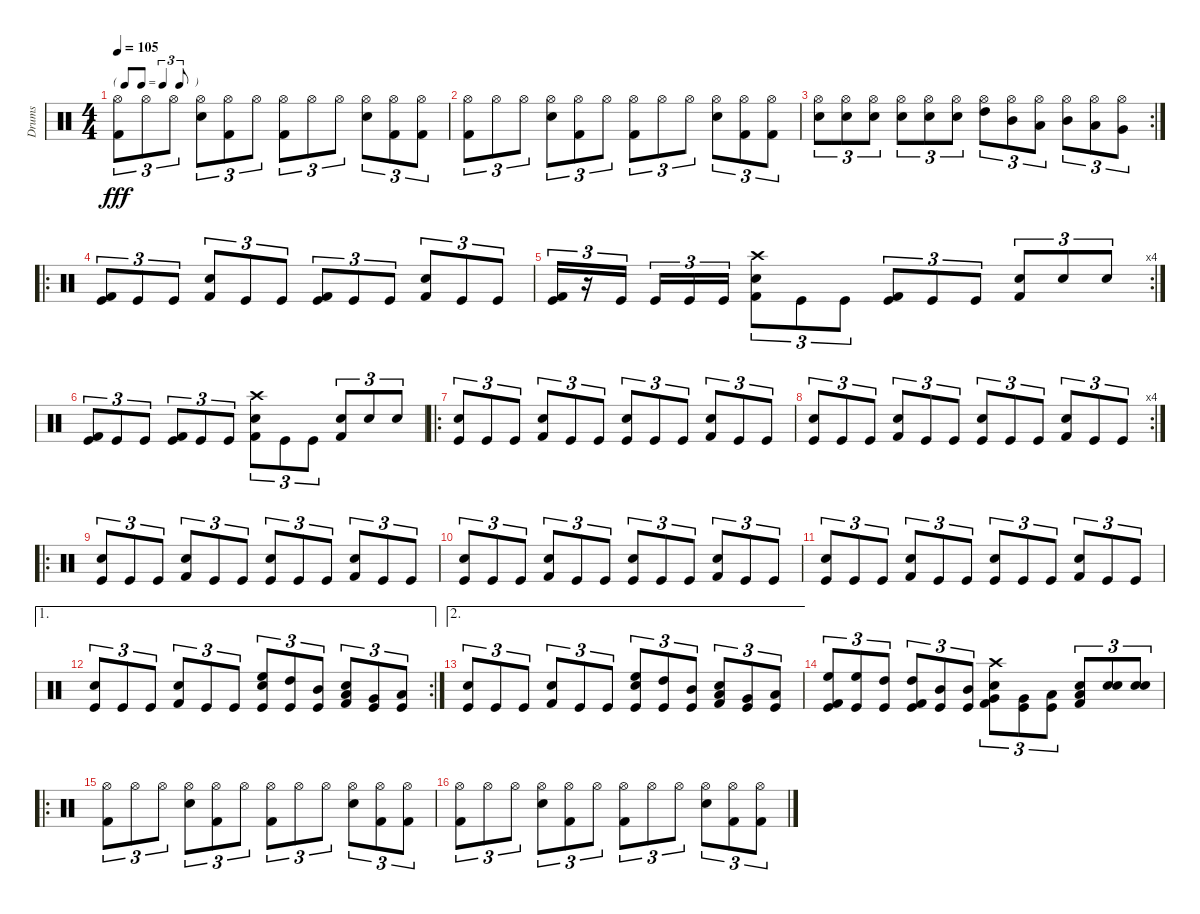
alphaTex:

\track ("Drums" "Drums") {instrument percussion}
\staff {score}
\articulation defaults
\ts (4 4)
\tf triplet8th
\tempo 105
\clef neutral
\ks c
("Hi-Hat (open)" "Kick (hit) 2").8{tu (3 2) dy fff} "Hi-Hat (open)".8{tu (3 2)} "Hi-Hat (open)".8{tu (3 2)} ("Hi-Hat (open)" "Snare (hit) 2").8{tu (3 2)} ("Hi-Hat (open)" "Kick (hit) 2").8{tu (3 2)} "Hi-Hat (open)".8{tu (3 2)} ("Hi-Hat (open)" "Kick (hit) 2").8{tu (3 2)} "Hi-Hat (open)".8{tu (3 2)} "Hi-Hat (open)".8{tu (3 2)} ("Hi-Hat (open)" "Snare (hit) 2").8{tu (3 2)} ("Hi-Hat (open)" "Kick (hit) 2").8{tu (3 2)} ("Hi-Hat (open)" "Kick (hit) 2").8{tu (3 2)} |
("Hi-Hat (open)" "Kick (hit) 2").8{tu (3 2)} "Hi-Hat (open)".8{tu (3 2)} "Hi-Hat (open)".8{tu (3 2)} ("Hi-Hat (open)" "Snare (hit) 2").8{tu (3 2)} ("Hi-Hat (open)" "Kick (hit) 2").8{tu (3 2)} "Hi-Hat (open)".8{tu (3 2)} ("Hi-Hat (open)" "Kick (hit) 2").8{tu (3 2)} "Hi-Hat (open)".8{tu (3 2)} "Hi-Hat (open)".8{tu (3 2)} ("Hi-Hat (open)" "Snare (hit) 2").8{tu (3 2)} ("Hi-Hat (open)" "Kick (hit) 2").8{tu (3 2)} ("Hi-Hat (open)" "Kick (hit) 2").8{tu (3 2)} |
\rc 2
("Hi-Hat (open)" "Snare (hit) 2").8{tu (3 2)} ("Hi-Hat (open)" "Snare (hit) 2").8{tu (3 2)} ("Hi-Hat (open)" "Snare (hit) 2").8{tu (3 2)} ("Hi-Hat (open)" "Snare (hit) 2").8{tu (3 2)} ("Hi-Hat (open)" "Snare (hit) 2").8{tu (3 2)} ("Hi-Hat (open)" "Snare (hit) 2").8{tu (3 2)} ("Hi-Hat (open)" "High Tom (hit)").8{tu (3 2)} ("Hi-Hat (open)" "Mid Tom (hit)").8{tu (3 2)} ("Hi-Hat (open)" "Low Tom (hit)").8{tu (3 2)} ("Hi-Hat (open)" "Mid Tom (hit)").8{tu (3 2)} ("Hi-Hat (open)" "Low Tom (hit)").8{tu (3 2)} ("Hi-Hat (open)" "Very Low Tom (hit)").8{tu (3 2)} |
\ro
("Kick (hit)" "Kick (hit) 2").8{tu (3 2)} "Kick (hit)".8{tu (3 2)} "Kick (hit)".8{tu (3 2)} ("Snare (hit) 2" "Kick (hit) 2").8{tu (3 2)} "Kick (hit)".8{tu (3 2)} "Kick (hit)".8{tu (3 2)} ("Kick (hit)" "Kick (hit) 2").8{tu (3 2)} "Kick (hit)".8{tu (3 2)} "Kick (hit)".8{tu (3 2)} ("Snare (hit) 2" "Kick (hit) 2").8{tu (3 2)} "Kick (hit)".8{tu (3 2)} "Kick (hit)".8{tu (3 2)} |
\rc 4
("Kick (hit)" "Kick (hit) 2").16{tu (3 2)} r.16{tu (3 2)} "Kick (hit)".16{tu (3 2)} "Kick (hit)".16{tu (3 2)} "Kick (hit)".16{tu (3 2)} "Kick (hit)".16{tu (3 2)} ("Snare (hit) 2" "Kick (hit) 2" "Crash high (hit)").8{tu (3 2)} "Kick (hit)".8{tu (3 2)} "Kick (hit)".8{tu (3 2)} ("Kick (hit)" "Kick (hit) 2").8{tu (3 2)} "Kick (hit)".8{tu (3 2)} "Kick (hit)".8{tu (3 2)} ("Snare (hit) 2" "Kick (hit) 2").8{tu (3 2)} "Snare (hit) 2".8{tu (3 2)} "Snare (hit) 2".8{tu (3 2)} |
("Kick (hit)" "Kick (hit) 2").8{tu (3 2)} "Kick (hit)".8{tu (3 2)} "Kick (hit)".8{tu (3 2)} ("Kick (hit)" "Kick (hit) 2").8{tu (3 2)} "Kick (hit)".8{tu (3 2)} "Kick (hit)".8{tu (3 2)} ("Snare (hit) 2" "Kick (hit) 2" "Crash high (hit)").8{tu (3 2)} "Kick (hit)".8{tu (3 2)} "Kick (hit)".8{tu (3 2)} ("Snare (hit) 2" "Kick (hit) 2").8{tu (3 2)} "Snare (hit) 2".8{tu (3 2)} "Snare (hit) 2".8{tu (3 2)} |
\ro
("Kick (hit)" "Snare (hit) 2").8{tu (3 2)} "Kick (hit)".8{tu (3 2)} "Kick (hit)".8{tu (3 2)} ("Snare (hit) 2" "Kick (hit) 2").8{tu (3 2)} "Kick (hit)".8{tu (3 2)} "Kick (hit)".8{tu (3 2)} ("Kick (hit)" "Snare (hit) 2").8{tu (3 2)} "Kick (hit)".8{tu (3 2)} "Kick (hit)".8{tu (3 2)} ("Snare (hit) 2" "Kick (hit) 2").8{tu (3 2)} "Kick (hit)".8{tu (3 2)} "Kick (hit)".8{tu (3 2)} |
\rc 4
("Kick (hit)" "Snare (hit) 2").8{tu (3 2)} "Kick (hit)".8{tu (3 2)} "Kick (hit)".8{tu (3 2)} ("Snare (hit) 2" "Kick (hit) 2").8{tu (3 2)} "Kick (hit)".8{tu (3 2)} "Kick (hit)".8{tu (3 2)} ("Kick (hit)" "Snare (hit) 2").8{tu (3 2)} "Kick (hit)".8{tu (3 2)} "Kick (hit)".8{tu (3 2)} ("Snare (hit) 2" "Kick (hit) 2").8{tu (3 2)} "Kick (hit)".8{tu (3 2)} "Kick (hit)".8{tu (3 2)} |
\ro
("Kick (hit)" "Snare (hit) 2").8{tu (3 2)} "Kick (hit)".8{tu (3 2)} "Kick (hit)".8{tu (3 2)} ("Snare (hit) 2" "Kick (hit) 2").8{tu (3 2)} "Kick (hit)".8{tu (3 2)} "Kick (hit)".8{tu (3 2)} ("Kick (hit)" "Snare (hit) 2").8{tu (3 2)} "Kick (hit)".8{tu (3 2)} "Kick (hit)".8{tu (3 2)} ("Snare (hit) 2" "Kick (hit) 2").8{tu (3 2)} "Kick (hit)".8{tu (3 2)} "Kick (hit)".8{tu (3 2)} |
("Kick (hit)" "Snare (hit) 2").8{tu (3 2)} "Kick (hit)".8{tu (3 2)} "Kick (hit)".8{tu (3 2)} ("Snare (hit) 2" "Kick (hit) 2").8{tu (3 2)} "Kick (hit)".8{tu (3 2)} "Kick (hit)".8{tu (3 2)} ("Kick (hit)" "Snare (hit) 2").8{tu (3 2)} "Kick (hit)".8{tu (3 2)} "Kick (hit)".8{tu (3 2)} ("Snare (hit) 2" "Kick (hit) 2").8{tu (3 2)} "Kick (hit)".8{tu (3 2)} "Kick (hit)".8{tu (3 2)} |
("Kick (hit)" "Snare (hit) 2").8{tu (3 2)} "Kick (hit)".8{tu (3 2)} "Kick (hit)".8{tu (3 2)} ("Snare (hit) 2" "Kick (hit) 2").8{tu (3 2)} "Kick (hit)".8{tu (3 2)} "Kick (hit)".8{tu (3 2)} ("Kick (hit)" "Snare (hit) 2").8{tu (3 2)} "Kick (hit)".8{tu (3 2)} "Kick (hit)".8{tu (3 2)} ("Snare (hit) 2" "Kick (hit) 2").8{tu (3 2)} "Kick (hit)".8{tu (3 2)} "Kick (hit)".8{tu (3 2)} |
\ae 1
\rc 2
("Kick (hit)" "Snare (hit) 2").8{tu (3 2)} "Kick (hit)".8{tu (3 2)} "Kick (hit)".8{tu (3 2)} ("Snare (hit) 2" "Kick (hit) 2").8{tu (3 2)} "Kick (hit)".8{tu (3 2)} "Kick (hit)".8{tu (3 2)} ("Kick (hit)" "Snare (hit) 2" "High Floor Tom (hit)").8{tu (3 2)} ("Kick (hit)" "High Tom (hit)").8{tu (3 2)} ("Kick (hit)" "Mid Tom (hit)").8{tu (3 2)} ("Snare (hit) 2" "Kick (hit) 2" "Low Tom (hit)").8{tu (3 2)} ("Kick (hit)" "Very Low Tom (hit)").8{tu (3 2)} ("Kick (hit)" "Low Floor Tom (hit)").8{tu (3 2)} |
\ae 2
("Kick (hit)" "Snare (hit) 2").8{tu (3 2)} "Kick (hit)".8{tu (3 2)} "Kick (hit)".8{tu (3 2)} ("Snare (hit) 2" "Kick (hit) 2").8{tu (3 2)} "Kick (hit)".8{tu (3 2)} "Kick (hit)".8{tu (3 2)} ("Kick (hit)" "Snare (hit) 2" "High Floor Tom (hit)").8{tu (3 2)} ("Kick (hit)" "High Tom (hit)").8{tu (3 2)} ("Kick (hit)" "Mid Tom (hit)").8{tu (3 2)} ("Snare (hit) 2" "Kick (hit) 2" "Low Tom (hit)").8{tu (3 2)} ("Kick (hit)" "Very Low Tom (hit)").8{tu (3 2)} ("Kick (hit)" "Low Floor Tom (hit)").8{tu (3 2)} |
("Kick (hit)" "Kick (hit) 2" "High Floor Tom (hit)").8{tu (3 2)} ("Kick (hit)" "High Floor Tom (hit)").8{tu (3 2)} ("Kick (hit)" "High Tom (hit)").8{tu (3 2)} ("Kick (hit)" "Kick (hit) 2" "High Tom (hit)").8{tu (3 2)} ("Kick (hit)" "Mid Tom (hit)").8{tu (3 2)} ("Kick (hit)" "Mid Tom (hit)").8{tu (3 2)} ("Snare (hit) 2" "Kick (hit) 2" "Crash high (hit)" "Very Low Tom (hit)").8{tu (3 2)} ("Kick (hit)" "Very Low Tom (hit)").8{tu (3 2)} ("Kick (hit)" "Low Floor Tom (hit)").8{tu (3 2)} ("Snare (hit) 2" "Kick (hit) 2" "Low Floor Tom (hit)").8{tu (3 2)} ("Snare (hit) 2" "Electric Snare (hit)").8{tu (3 2)} ("Snare (hit) 2" "Electric Snare (hit)").8{tu (3 2)} |
\ro
("Hi-Hat (open)" "Kick (hit) 2").8{tu (3 2)} "Hi-Hat (open)".8{tu (3 2)} "Hi-Hat (open)".8{tu (3 2)} ("Hi-Hat (open)" "Snare (hit) 2").8{tu (3 2)} ("Hi-Hat (open)" "Kick (hit) 2").8{tu (3 2)} "Hi-Hat (open)".8{tu (3 2)} ("Hi-Hat (open)" "Kick (hit) 2").8{tu (3 2)} "Hi-Hat (open)".8{tu (3 2)} "Hi-Hat (open)".8{tu (3 2)} ("Hi-Hat (open)" "Snare (hit) 2").8{tu (3 2)} ("Hi-Hat (open)" "Kick (hit) 2").8{tu (3 2)} ("Hi-Hat (open)" "Kick (hit) 2").8{tu (3 2)} |
("Hi-Hat (open)" "Kick (hit) 2").8{tu (3 2)} "Hi-Hat (open)".8{tu (3 2)} "Hi-Hat (open)".8{tu (3 2)} ("Hi-Hat (open)" "Snare (hit) 2").8{tu (3 2)} ("Hi-Hat (open)" "Kick (hit) 2").8{tu (3 2)} "Hi-Hat (open)".8{tu (3 2)} ("Hi-Hat (open)" "Kick (hit) 2").8{tu (3 2)} "Hi-Hat (open)".8{tu (3 2)} "Hi-Hat (open)".8{tu (3 2)} ("Hi-Hat (open)" "Snare (hit) 2").8{tu (3 2)} ("Hi-Hat (open)" "Kick (hit) 2").8{tu (3 2)} ("Hi-Hat (open)" "Kick (hit) 2").8{tu (3 2)}
